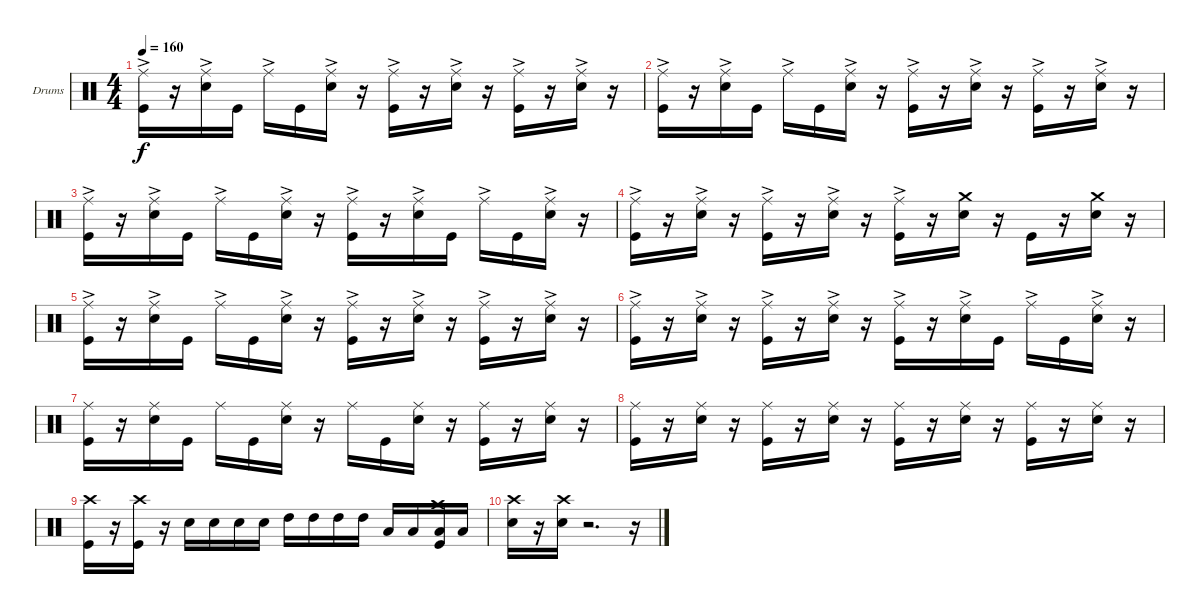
\defaultSystemsLayout 4
\bracketExtendMode groupsimilarinstruments
\firstSystemTrackNameOrientation horizontal
\otherSystemsTrackNameOrientation horizontal
\track ("Drumkit" "Drums") {instrument percussion}
\staff {score}
\articulation defaults
\ts (4 4)
\tempo 160
\clef neutral
\ks c
("Ride (middle)"{ac} "Kick (hit)").16{dy f} r.16 ("Ride (middle)"{ac} "Snare (hit) 2").16 "Kick (hit)".16 "Ride (middle)"{ac}.16 "Kick (hit)".16 ("Ride (middle)"{ac} "Snare (hit) 2").16 r.16 ("Ride (middle)"{ac} "Kick (hit)").16 r.16 ("Ride (middle)"{ac} "Snare (hit) 2").16 r.16 ("Ride (middle)"{ac} "Kick (hit)").16 r.16 ("Ride (middle)"{ac} "Snare (hit) 2").16 r.16 |
("Ride (middle)"{ac} "Kick (hit)").16 r.16 ("Ride (middle)"{ac} "Snare (hit) 2").16 "Kick (hit)".16 "Ride (middle)"{ac}.16 "Kick (hit)".16 ("Ride (middle)"{ac} "Snare (hit) 2").16 r.16 ("Ride (middle)"{ac} "Kick (hit)").16 r.16 ("Ride (middle)"{ac} "Snare (hit) 2").16 r.16 ("Ride (middle)"{ac} "Kick (hit)").16 r.16 ("Ride (middle)"{ac} "Snare (hit) 2").16 r.16 |
("Ride (middle)"{ac} "Kick (hit)").16 r.16 ("Ride (middle)"{ac} "Snare (hit) 2").16 "Kick (hit)".16 "Ride (middle)"{ac}.16 "Kick (hit)".16 ("Ride (middle)"{ac} "Snare (hit) 2").16 r.16 ("Ride (middle)"{ac} "Kick (hit)").16 r.16 ("Ride (middle)"{ac} "Snare (hit) 2").16 "Kick (hit)".16 "Ride (middle)"{ac}.16 "Kick (hit)".16 ("Ride (middle)"{ac} "Snare (hit) 2").16 r.16 |
("Ride (middle)"{ac} "Kick (hit)").16 r.16 ("Ride (middle)"{ac} "Snare (hit) 2").16 r.16 ("Ride (middle)"{ac} "Kick (hit)").16 r.16 ("Ride (middle)"{ac} "Snare (hit) 2").16 r.16 ("Ride (middle)"{ac} "Kick (hit)").16 r.16 ("Crash medium (hit)" "Snare (hit) 2").16 r.16 "Kick (hit)".16 r.16 ("Crash medium (hit)" "Snare (hit) 2").16 r.16 |
("Ride (middle)"{ac} "Kick (hit)").16 r.16 ("Ride (middle)"{ac} "Snare (hit) 2").16 "Kick (hit)".16 "Ride (middle)"{ac}.16 "Kick (hit)".16 ("Ride (middle)"{ac} "Snare (hit) 2").16 r.16 ("Ride (middle)"{ac} "Kick (hit)").16 r.16 ("Ride (middle)"{ac} "Snare (hit) 2").16 r.16 ("Ride (middle)"{ac} "Kick (hit)").16 r.16 ("Ride (middle)"{ac} "Snare (hit) 2").16 r.16 |
("Ride (middle)"{ac} "Kick (hit)").16 r.16 ("Ride (middle)"{ac} "Snare (hit) 2").16 r.16 ("Ride (middle)"{ac} "Kick (hit)").16 r.16 ("Ride (middle)"{ac} "Snare (hit) 2").16 r.16 ("Ride (middle)"{ac} "Kick (hit)").16 r.16 ("Ride (middle)"{ac} "Snare (hit) 2").16 "Kick (hit)".16 "Ride (middle)"{ac}.16 "Kick (hit)".16 ("Ride (middle)"{ac} "Snare (hit) 2").16 r.16 |
("Ride (middle)" "Kick (hit)").16 r.16 ("Ride (middle)" "Snare (hit) 2").16 "Kick (hit)".16 "Ride (middle)".16 "Kick (hit)".16 ("Ride (middle)" "Snare (hit) 2").16 r.16 "Ride (middle)".16 "Kick (hit)".16 ("Ride (middle)" "Snare (hit) 2").16 r.16 ("Ride (middle)" "Kick (hit)").16 r.16 ("Ride (middle)" "Snare (hit) 2").16 r.16 |
("Ride (middle)" "Kick (hit)").16 r.16 ("Ride (middle)" "Snare (hit) 2").16 r.16 ("Ride (middle)" "Kick (hit)").16 r.16 ("Ride (middle)" "Snare (hit) 2").16 r.16 ("Ride (middle)" "Kick (hit)").16 r.16 ("Ride (middle)" "Snare (hit) 2").16 r.16 ("Ride (middle)" "Kick (hit)").16 r.16 ("Ride (middle)" "Snare (hit) 2").16 r.16 |
("Crash high (hit)" "Kick (hit)").16 r.16 ("Crash high (hit)" "Kick (hit)").16 r.16 "Snare (hit) 2".16 "Snare (hit) 2".16 "Snare (hit) 2".16 "Snare (hit) 2".16 "High Tom (hit)".16 "High Tom (hit)".16 "High Tom (hit)".16 "High Tom (hit)".16 "Low Tom (hit)".16 "Low Tom (hit)".16 ("Crash medium (hit)" "Low Tom (hit)" "Kick (hit)").16 "Low Tom (hit)".16 |
("Crash high (hit)" "Snare (hit) 2").16 r.16 ("Crash high (hit)" "Snare (hit) 2").16 r.2{d} r.16
